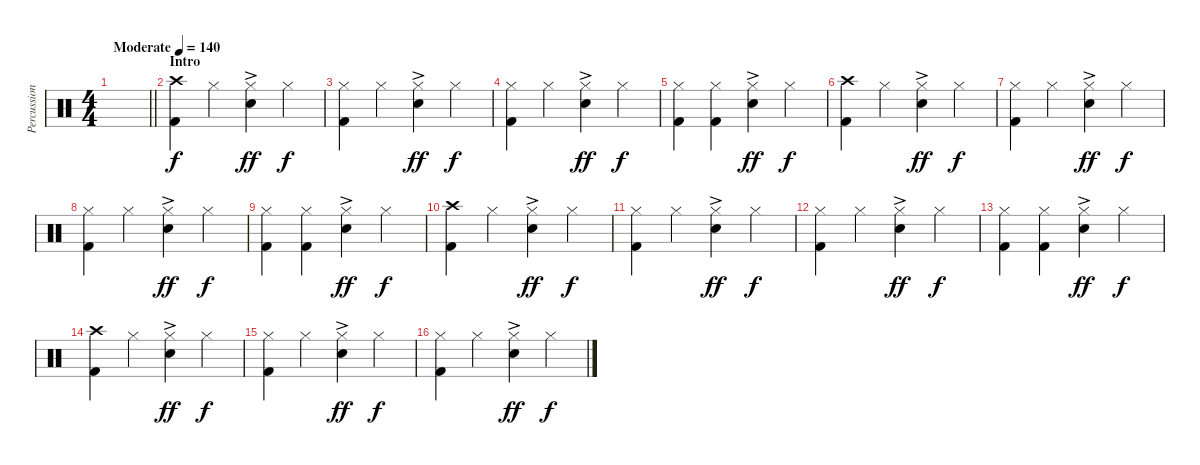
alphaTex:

\track ("Percussion" "Percussion") {instrument percussion}
\staff {score}
\articulation defaults
\ts (4 4)
\tempo (140 "Moderate")
\clef neutral
\barLineRight lightlight
\ks c
|
\section ("" "Intro")
("Crash high (hit)" "Kick (hit) 2").4 "Hi-Hat (closed)".4 ("Hi-Hat (closed)" "Electric Snare (hit)"{ac}).4{dy ff} "Hi-Hat (closed)".4{dy f} |
("Hi-Hat (closed)" "Kick (hit) 2").4 "Hi-Hat (closed)".4 ("Hi-Hat (closed)" "Electric Snare (hit)"{ac}).4{dy ff} "Hi-Hat (closed)".4{dy f} |
("Hi-Hat (closed)" "Kick (hit) 2").4 "Hi-Hat (closed)".4 ("Hi-Hat (closed)" "Electric Snare (hit)"{ac}).4{dy ff} "Hi-Hat (closed)".4{dy f} |
("Hi-Hat (closed)" "Kick (hit) 2").4 ("Hi-Hat (closed)" "Kick (hit) 2").4 ("Hi-Hat (closed)" "Electric Snare (hit)"{ac}).4{dy ff} "Hi-Hat (closed)".4{dy f} |
("Crash high (hit)" "Kick (hit) 2").4 "Hi-Hat (closed)".4 ("Hi-Hat (closed)" "Electric Snare (hit)"{ac}).4{dy ff} "Hi-Hat (closed)".4{dy f} |
("Hi-Hat (closed)" "Kick (hit) 2").4 "Hi-Hat (closed)".4 ("Hi-Hat (closed)" "Electric Snare (hit)"{ac}).4{dy ff} "Hi-Hat (closed)".4{dy f} |
("Hi-Hat (closed)" "Kick (hit) 2").4 "Hi-Hat (closed)".4 ("Hi-Hat (closed)" "Electric Snare (hit)"{ac}).4{dy ff} "Hi-Hat (closed)".4{dy f} |
("Hi-Hat (closed)" "Kick (hit) 2").4 ("Hi-Hat (closed)" "Kick (hit) 2").4 ("Hi-Hat (closed)" "Electric Snare (hit)"{ac}).4{dy ff} "Hi-Hat (closed)".4{dy f} |
("Crash high (hit)" "Kick (hit) 2").4 "Hi-Hat (closed)".4 ("Hi-Hat (closed)" "Electric Snare (hit)"{ac}).4{dy ff} "Hi-Hat (closed)".4{dy f} |
("Hi-Hat (closed)" "Kick (hit) 2").4 "Hi-Hat (closed)".4 ("Hi-Hat (closed)" "Electric Snare (hit)"{ac}).4{dy ff} "Hi-Hat (closed)".4{dy f} |
("Hi-Hat (closed)" "Kick (hit) 2").4 "Hi-Hat (closed)".4 ("Hi-Hat (closed)" "Electric Snare (hit)"{ac}).4{dy ff} "Hi-Hat (closed)".4{dy f} |
("Hi-Hat (closed)" "Kick (hit) 2").4 ("Hi-Hat (closed)" "Kick (hit) 2").4 ("Hi-Hat (closed)" "Electric Snare (hit)"{ac}).4{dy ff} "Hi-Hat (closed)".4{dy f} |
("Crash high (hit)" "Kick (hit) 2").4 "Hi-Hat (closed)".4 ("Hi-Hat (closed)" "Electric Snare (hit)"{ac}).4{dy ff} "Hi-Hat (closed)".4{dy f} |
("Hi-Hat (closed)" "Kick (hit) 2").4 "Hi-Hat (closed)".4 ("Hi-Hat (closed)" "Electric Snare (hit)"{ac}).4{dy ff} "Hi-Hat (closed)".4{dy f} |
("Hi-Hat (closed)" "Kick (hit) 2").4 "Hi-Hat (closed)".4 ("Hi-Hat (closed)" "Electric Snare (hit)"{ac}).4{dy ff} "Hi-Hat (closed)".4{dy f}
